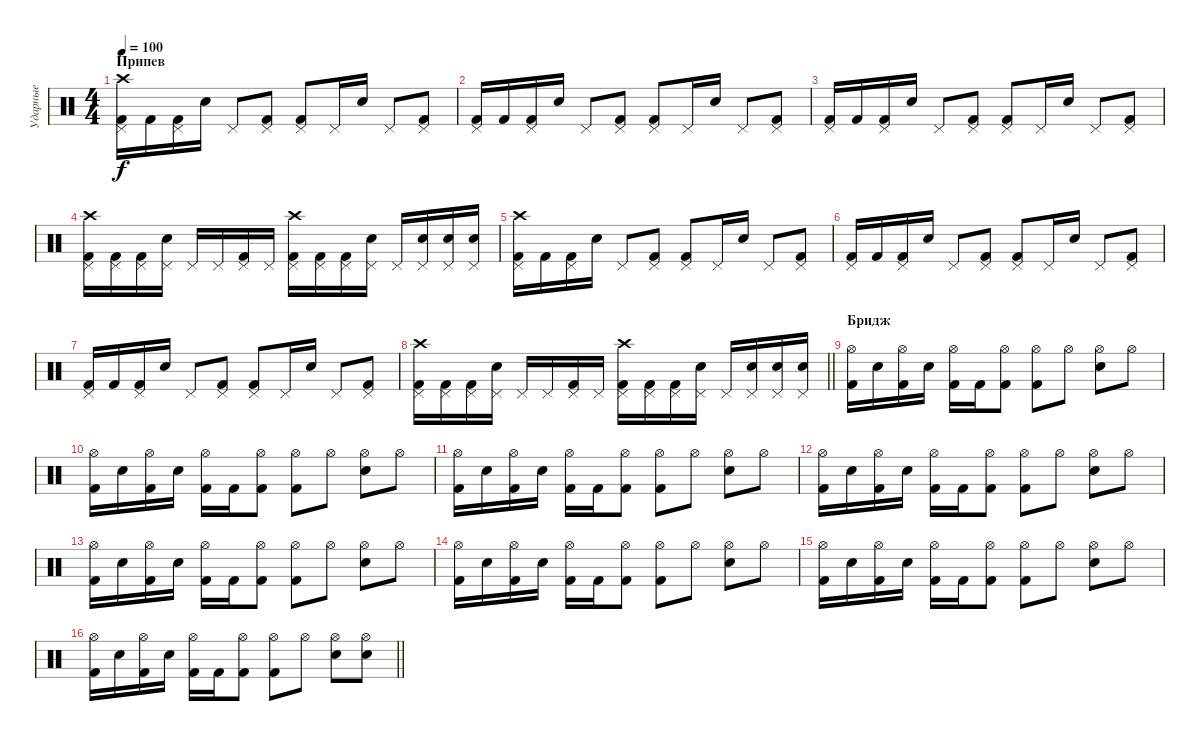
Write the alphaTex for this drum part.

\track ("Ударные" "Ударные") {instrument percussion}
\staff {score}
\articulation defaults
\ts (4 4)
\section ("" "Припев")
\tempo 100
\clef neutral
\ks c
("Pedal Hi-Hat (hit)" "Kick (hit) 2" "Crash high (hit)").16{dy f} "Kick (hit) 2".16 ("Pedal Hi-Hat (hit)" "Kick (hit) 2").16 "Snare (hit) 2".16 "Pedal Hi-Hat (hit)".8 ("Pedal Hi-Hat (hit)" "Kick (hit) 2").8 ("Pedal Hi-Hat (hit)" "Kick (hit) 2").8 "Pedal Hi-Hat (hit)".16 "Snare (hit) 2".16 "Pedal Hi-Hat (hit)".8 ("Pedal Hi-Hat (hit)" "Kick (hit) 2").8 |
("Pedal Hi-Hat (hit)" "Kick (hit) 2").16 "Kick (hit) 2".16 ("Pedal Hi-Hat (hit)" "Kick (hit) 2").16 "Snare (hit) 2".16 "Pedal Hi-Hat (hit)".8 ("Pedal Hi-Hat (hit)" "Kick (hit) 2").8 ("Pedal Hi-Hat (hit)" "Kick (hit) 2").8 "Pedal Hi-Hat (hit)".16 "Snare (hit) 2".16 "Pedal Hi-Hat (hit)".8 ("Pedal Hi-Hat (hit)" "Kick (hit) 2").8 |
("Pedal Hi-Hat (hit)" "Kick (hit) 2").16 "Kick (hit) 2".16 ("Pedal Hi-Hat (hit)" "Kick (hit) 2").16 "Snare (hit) 2".16 "Pedal Hi-Hat (hit)".8 ("Pedal Hi-Hat (hit)" "Kick (hit) 2").8 ("Pedal Hi-Hat (hit)" "Kick (hit) 2").8 "Pedal Hi-Hat (hit)".16 "Snare (hit) 2".16 "Pedal Hi-Hat (hit)".8 ("Pedal Hi-Hat (hit)" "Kick (hit) 2").8 |
("Pedal Hi-Hat (hit)" "Kick (hit) 2" "Crash high (hit)").16 ("Pedal Hi-Hat (hit)" "Kick (hit) 2").16 ("Pedal Hi-Hat (hit)" "Kick (hit) 2").16 ("Pedal Hi-Hat (hit)" "Snare (hit) 2").16 "Pedal Hi-Hat (hit)".16 "Pedal Hi-Hat (hit)".16 ("Pedal Hi-Hat (hit)" "Kick (hit) 2").16 "Pedal Hi-Hat (hit)".16 ("Pedal Hi-Hat (hit)" "Kick (hit) 2" "Crash high (hit)").16 ("Pedal Hi-Hat (hit)" "Kick (hit) 2").16 ("Pedal Hi-Hat (hit)" "Kick (hit) 2").16 ("Pedal Hi-Hat (hit)" "Snare (hit) 2").16 "Pedal Hi-Hat (hit)".16 ("Pedal Hi-Hat (hit)" "Snare (hit) 2").16 ("Pedal Hi-Hat (hit)" "Snare (hit) 2").16 ("Pedal Hi-Hat (hit)" "Snare (hit) 2").16 |
("Pedal Hi-Hat (hit)" "Kick (hit) 2" "Crash high (hit)").16 "Kick (hit) 2".16 ("Pedal Hi-Hat (hit)" "Kick (hit) 2").16 "Snare (hit) 2".16 "Pedal Hi-Hat (hit)".8 ("Pedal Hi-Hat (hit)" "Kick (hit) 2").8 ("Pedal Hi-Hat (hit)" "Kick (hit) 2").8 "Pedal Hi-Hat (hit)".16 "Snare (hit) 2".16 "Pedal Hi-Hat (hit)".8 ("Pedal Hi-Hat (hit)" "Kick (hit) 2").8 |
("Pedal Hi-Hat (hit)" "Kick (hit) 2").16 "Kick (hit) 2".16 ("Pedal Hi-Hat (hit)" "Kick (hit) 2").16 "Snare (hit) 2".16 "Pedal Hi-Hat (hit)".8 ("Pedal Hi-Hat (hit)" "Kick (hit) 2").8 ("Pedal Hi-Hat (hit)" "Kick (hit) 2").8 "Pedal Hi-Hat (hit)".16 "Snare (hit) 2".16 "Pedal Hi-Hat (hit)".8 ("Pedal Hi-Hat (hit)" "Kick (hit) 2").8 |
("Pedal Hi-Hat (hit)" "Kick (hit) 2").16 "Kick (hit) 2".16 ("Pedal Hi-Hat (hit)" "Kick (hit) 2").16 "Snare (hit) 2".16 "Pedal Hi-Hat (hit)".8 ("Pedal Hi-Hat (hit)" "Kick (hit) 2").8 ("Pedal Hi-Hat (hit)" "Kick (hit) 2").8 "Pedal Hi-Hat (hit)".16 "Snare (hit) 2".16 "Pedal Hi-Hat (hit)".8 ("Pedal Hi-Hat (hit)" "Kick (hit) 2").8 |
\barLineRight lightlight
("Pedal Hi-Hat (hit)" "Kick (hit) 2" "Crash high (hit)").16 ("Pedal Hi-Hat (hit)" "Kick (hit) 2").16 ("Pedal Hi-Hat (hit)" "Kick (hit) 2").16 ("Pedal Hi-Hat (hit)" "Snare (hit) 2").16 "Pedal Hi-Hat (hit)".16 "Pedal Hi-Hat (hit)".16 ("Pedal Hi-Hat (hit)" "Kick (hit) 2").16 "Pedal Hi-Hat (hit)".16 ("Pedal Hi-Hat (hit)" "Kick (hit) 2" "Crash high (hit)").16 ("Pedal Hi-Hat (hit)" "Kick (hit) 2").16 ("Pedal Hi-Hat (hit)" "Kick (hit) 2").16 ("Pedal Hi-Hat (hit)" "Snare (hit) 2").16 "Pedal Hi-Hat (hit)".16 ("Pedal Hi-Hat (hit)" "Snare (hit) 2").16 ("Pedal Hi-Hat (hit)" "Snare (hit) 2").16 ("Pedal Hi-Hat (hit)" "Snare (hit) 2").16 |
\section ("" "Бридж")
("Hi-Hat (open)" "Kick (hit) 2").16 "Electric Snare (hit)".16 ("Hi-Hat (open)" "Kick (hit) 2").16 "Electric Snare (hit)".16 ("Hi-Hat (open)" "Kick (hit) 2").16 "Kick (hit) 2".16 ("Hi-Hat (open)" "Kick (hit) 2").8 ("Hi-Hat (open)" "Kick (hit) 2").8 "Hi-Hat (open)".8 ("Hi-Hat (open)" "Snare (hit) 2").8 "Hi-Hat (open)".8 |
("Hi-Hat (open)" "Kick (hit) 2").16 "Electric Snare (hit)".16 ("Hi-Hat (open)" "Kick (hit) 2").16 "Electric Snare (hit)".16 ("Hi-Hat (open)" "Kick (hit) 2").16 "Kick (hit) 2".16 ("Hi-Hat (open)" "Kick (hit) 2").8 ("Hi-Hat (open)" "Kick (hit) 2").8 "Hi-Hat (open)".8 ("Hi-Hat (open)" "Snare (hit) 2").8 "Hi-Hat (open)".8 |
("Hi-Hat (open)" "Kick (hit) 2").16 "Electric Snare (hit)".16 ("Hi-Hat (open)" "Kick (hit) 2").16 "Electric Snare (hit)".16 ("Hi-Hat (open)" "Kick (hit) 2").16 "Kick (hit) 2".16 ("Hi-Hat (open)" "Kick (hit) 2").8 ("Hi-Hat (open)" "Kick (hit) 2").8 "Hi-Hat (open)".8 ("Hi-Hat (open)" "Snare (hit) 2").8 "Hi-Hat (open)".8 |
("Hi-Hat (open)" "Kick (hit) 2").16 "Electric Snare (hit)".16 ("Hi-Hat (open)" "Kick (hit) 2").16 "Electric Snare (hit)".16 ("Hi-Hat (open)" "Kick (hit) 2").16 "Kick (hit) 2".16 ("Hi-Hat (open)" "Kick (hit) 2").8 ("Hi-Hat (open)" "Kick (hit) 2").8 "Hi-Hat (open)".8 ("Hi-Hat (open)" "Snare (hit) 2").8 "Hi-Hat (open)".8 |
("Hi-Hat (open)" "Kick (hit) 2").16 "Electric Snare (hit)".16 ("Hi-Hat (open)" "Kick (hit) 2").16 "Electric Snare (hit)".16 ("Hi-Hat (open)" "Kick (hit) 2").16 "Kick (hit) 2".16 ("Hi-Hat (open)" "Kick (hit) 2").8 ("Hi-Hat (open)" "Kick (hit) 2").8 "Hi-Hat (open)".8 ("Hi-Hat (open)" "Snare (hit) 2").8 "Hi-Hat (open)".8 |
("Hi-Hat (open)" "Kick (hit) 2").16 "Electric Snare (hit)".16 ("Hi-Hat (open)" "Kick (hit) 2").16 "Electric Snare (hit)".16 ("Hi-Hat (open)" "Kick (hit) 2").16 "Kick (hit) 2".16 ("Hi-Hat (open)" "Kick (hit) 2").8 ("Hi-Hat (open)" "Kick (hit) 2").8 "Hi-Hat (open)".8 ("Hi-Hat (open)" "Snare (hit) 2").8 "Hi-Hat (open)".8 |
("Hi-Hat (open)" "Kick (hit) 2").16 "Electric Snare (hit)".16 ("Hi-Hat (open)" "Kick (hit) 2").16 "Electric Snare (hit)".16 ("Hi-Hat (open)" "Kick (hit) 2").16 "Kick (hit) 2".16 ("Hi-Hat (open)" "Kick (hit) 2").8 ("Hi-Hat (open)" "Kick (hit) 2").8 "Hi-Hat (open)".8 ("Hi-Hat (open)" "Snare (hit) 2").8 "Hi-Hat (open)".8 |
\barLineRight lightlight
("Hi-Hat (open)" "Kick (hit) 2").16 "Electric Snare (hit)".16 ("Hi-Hat (open)" "Kick (hit) 2").16 "Electric Snare (hit)".16 ("Hi-Hat (open)" "Kick (hit) 2").16 "Kick (hit) 2".16 ("Hi-Hat (open)" "Kick (hit) 2").8 ("Hi-Hat (open)" "Kick (hit) 2").8 "Hi-Hat (open)".8 ("Hi-Hat (open)" "Snare (hit) 2").8 ("Hi-Hat (open)" "Snare (hit) 2").8
